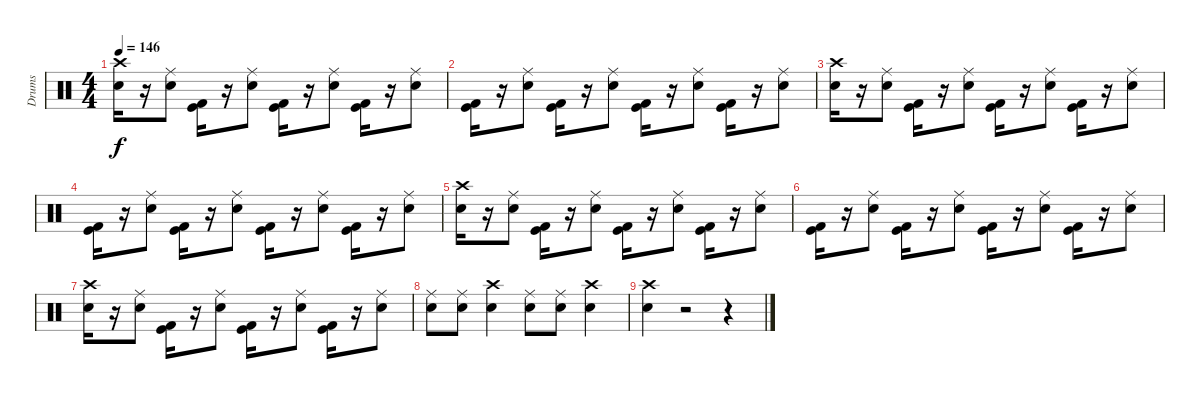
\track ("Drums" "Drums") {instrument percussion}
\staff {score}
\articulation defaults
\ts (4 4)
\tempo 146
\clef neutral
\ks c
("Crash high (hit)" "Electric Snare (hit)").16{dy f} r.16 ("Ride (middle)" "Electric Snare (hit)").8 ("Kick (hit)" "Kick (hit) 2").16 r.16 ("Ride (middle)" "Electric Snare (hit)").8 ("Kick (hit)" "Kick (hit) 2").16 r.16 ("Ride (middle)" "Electric Snare (hit)").8 ("Kick (hit)" "Kick (hit) 2").16 r.16 ("Ride (middle)" "Electric Snare (hit)").8 |
("Kick (hit)" "Kick (hit) 2").16 r.16 ("Ride (middle)" "Electric Snare (hit)").8 ("Kick (hit)" "Kick (hit) 2").16 r.16 ("Ride (middle)" "Electric Snare (hit)").8 ("Kick (hit)" "Kick (hit) 2").16 r.16 ("Ride (middle)" "Electric Snare (hit)").8 ("Kick (hit)" "Kick (hit) 2").16 r.16 ("Ride (middle)" "Electric Snare (hit)").8 |
("Crash high (hit)" "Electric Snare (hit)").16 r.16 ("Ride (middle)" "Electric Snare (hit)").8 ("Kick (hit)" "Kick (hit) 2").16 r.16 ("Ride (middle)" "Electric Snare (hit)").8 ("Kick (hit)" "Kick (hit) 2").16 r.16 ("Ride (middle)" "Electric Snare (hit)").8 ("Kick (hit)" "Kick (hit) 2").16 r.16 ("Ride (middle)" "Electric Snare (hit)").8 |
("Kick (hit)" "Kick (hit) 2").16 r.16 ("Ride (middle)" "Electric Snare (hit)").8 ("Kick (hit)" "Kick (hit) 2").16 r.16 ("Ride (middle)" "Electric Snare (hit)").8 ("Kick (hit)" "Kick (hit) 2").16 r.16 ("Ride (middle)" "Electric Snare (hit)").8 ("Kick (hit)" "Kick (hit) 2").16 r.16 ("Ride (middle)" "Electric Snare (hit)").8 |
("Crash high (hit)" "Electric Snare (hit)").16 r.16 ("Ride (middle)" "Electric Snare (hit)").8 ("Kick (hit)" "Kick (hit) 2").16 r.16 ("Ride (middle)" "Electric Snare (hit)").8 ("Kick (hit)" "Kick (hit) 2").16 r.16 ("Ride (middle)" "Electric Snare (hit)").8 ("Kick (hit)" "Kick (hit) 2").16 r.16 ("Ride (middle)" "Electric Snare (hit)").8 |
("Kick (hit)" "Kick (hit) 2").16 r.16 ("Ride (middle)" "Electric Snare (hit)").8 ("Kick (hit)" "Kick (hit) 2").16 r.16 ("Ride (middle)" "Electric Snare (hit)").8 ("Kick (hit)" "Kick (hit) 2").16 r.16 ("Ride (middle)" "Electric Snare (hit)").8 ("Kick (hit)" "Kick (hit) 2").16 r.16 ("Ride (middle)" "Electric Snare (hit)").8 |
("Crash high (hit)" "Electric Snare (hit)").16 r.16 ("Ride (middle)" "Electric Snare (hit)").8 ("Kick (hit)" "Kick (hit) 2").16 r.16 ("Ride (middle)" "Electric Snare (hit)").8 ("Kick (hit)" "Kick (hit) 2").16 r.16 ("Ride (middle)" "Electric Snare (hit)").8 ("Kick (hit)" "Kick (hit) 2").16 r.16 ("Ride (middle)" "Electric Snare (hit)").8 |
("Ride (middle)" "Electric Snare (hit)").8 ("Ride (middle)" "Electric Snare (hit)").8 ("Crash high (hit)" "Electric Snare (hit)").4 ("Ride (middle)" "Electric Snare (hit)").8 ("Ride (middle)" "Electric Snare (hit)").8 ("Crash high (hit)" "Electric Snare (hit)").4 |
("Crash high (hit)" "Electric Snare (hit)").4 r.2 r.4
